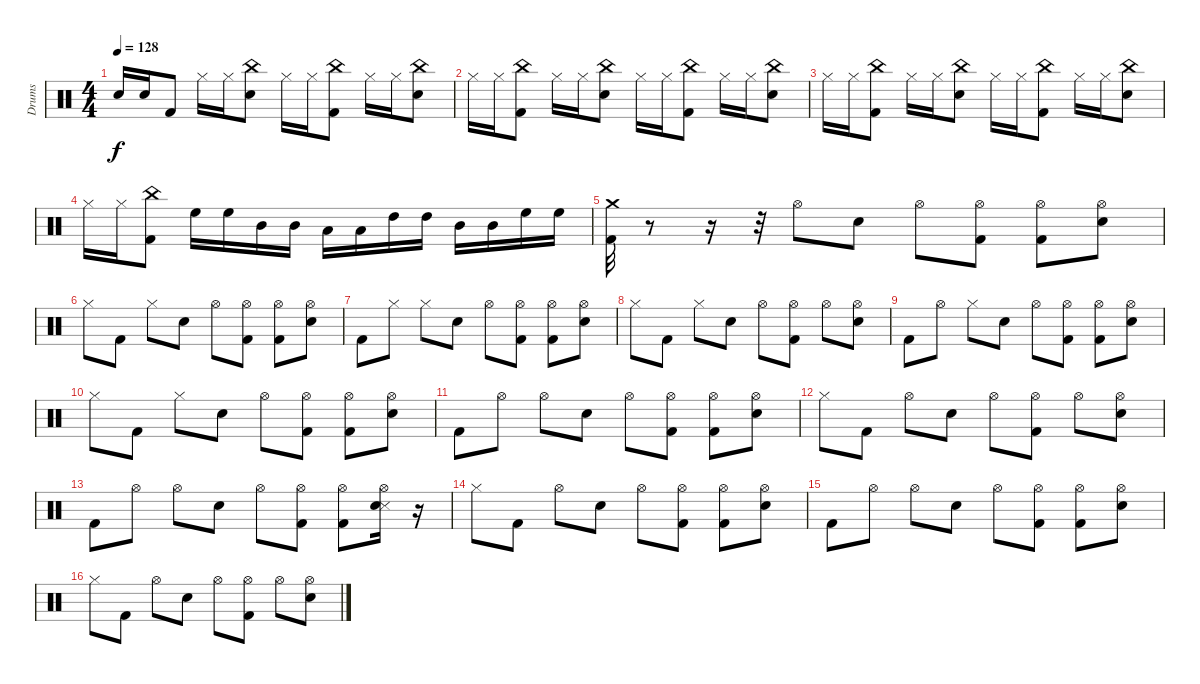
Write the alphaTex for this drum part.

\track ("Drums" "Drums") {instrument percussion}
\staff {score}
\articulation defaults
\ts (4 4)
\tempo 128
\clef neutral
\ks c "Snare (hit) 2".16{dy f} "Snare (hit) 2".16 "Kick (hit) 2".8 "Hi-Hat (closed)".16 "Hi-Hat (closed)".16
("China (hit)" "Snare (hit) 2").8 "Hi-Hat (closed)".16 "Hi-Hat (closed)".16 ("China (hit)" "Kick (hit) 2").8 "Hi-Hat (closed)".16 "Hi-Hat (closed)".16 ("China (hit)" "Snare (hit) 2").8 |
"Hi-Hat (closed)".16 "Hi-Hat (closed)".16 ("China (hit)" "Kick (hit) 2").8 "Hi-Hat (closed)".16 "Hi-Hat (closed)".16 ("China (hit)" "Snare (hit) 2").8 "Hi-Hat (closed)".16 "Hi-Hat (closed)".16 ("China (hit)" "Kick (hit) 2").8 "Hi-Hat (closed)".16 "Hi-Hat (closed)".16 ("China (hit)" "Snare (hit) 2").8 |
"Hi-Hat (closed)".16 "Hi-Hat (closed)".16 ("China (hit)" "Kick (hit) 2").8 "Hi-Hat (closed)".16 "Hi-Hat (closed)".16 ("China (hit)" "Snare (hit) 2").8 "Hi-Hat (closed)".16 "Hi-Hat (closed)".16 ("China (hit)" "Kick (hit) 2").8 "Hi-Hat (closed)".16 "Hi-Hat (closed)".16 ("China (hit)" "Snare (hit) 2").8 |
"Hi-Hat (closed)".16 "Hi-Hat (closed)".16 ("China (hit)" "Kick (hit) 2").8 "High Floor Tom (hit)".16 "High Floor Tom (hit)".16 "Mid Tom (hit)".16 "Mid Tom (hit)".16 "Low Tom (hit)".16 "Low Tom (hit)".16 "High Tom (hit)".16 "High Tom (hit)".16 "Mid Tom (hit)".16 "Mid Tom (hit)".16 "High Floor Tom (hit)".16 "High Floor Tom (hit)".16 |
("Crash medium (hit)" "Kick (hit) 2").32 r.8 r.16 r.32 "Hi-Hat (open)".8 "Snare (hit) 2".8 "Hi-Hat (open)".8 ("Hi-Hat (open)" "Kick (hit) 2").8 ("Hi-Hat (open)" "Kick (hit) 2").8 ("Hi-Hat (open)" "Snare (hit) 2").8 |
"Hi-Hat (closed)".8 "Kick (hit) 2".8 "Hi-Hat (closed)".8 "Snare (hit) 2".8 "Hi-Hat (open)".8 ("Hi-Hat (open)" "Kick (hit) 2").8 ("Hi-Hat (open)" "Kick (hit) 2").8 ("Hi-Hat (open)" "Snare (hit) 2").8 |
"Kick (hit) 2".8 "Hi-Hat (closed)".8 "Hi-Hat (closed)".8 "Snare (hit) 2".8 "Hi-Hat (open)".8 ("Hi-Hat (open)" "Kick (hit) 2").8 ("Hi-Hat (open)" "Kick (hit) 2").8 ("Hi-Hat (open)" "Snare (hit) 2").8 |
"Hi-Hat (closed)".8 "Kick (hit) 2".8 "Hi-Hat (closed)".8 "Snare (hit) 2".8 "Hi-Hat (open)".8 ("Hi-Hat (open)" "Kick (hit) 2").8 "Hi-Hat (open)".8 ("Hi-Hat (open)" "Snare (hit) 2").8 |
"Kick (hit) 2".8 "Hi-Hat (open)".8 "Hi-Hat (closed)".8 "Snare (hit) 2".8 "Hi-Hat (open)".8 ("Hi-Hat (open)" "Kick (hit) 2").8 ("Hi-Hat (open)" "Kick (hit) 2").8 ("Hi-Hat (open)" "Snare (hit) 2").8 |
"Hi-Hat (closed)".8 "Kick (hit) 2".8 "Hi-Hat (closed)".8 "Snare (hit) 2".8 "Hi-Hat (open)".8 ("Hi-Hat (open)" "Kick (hit) 2").8 ("Hi-Hat (open)" "Kick (hit) 2").8 ("Hi-Hat (open)" "Snare (hit) 2").8 |
"Kick (hit) 2".8 "Hi-Hat (open)".8 "Hi-Hat (open)".8 "Snare (hit) 2".8 "Hi-Hat (open)".8 ("Hi-Hat (open)" "Kick (hit) 2").8 ("Hi-Hat (open)" "Kick (hit) 2").8 ("Hi-Hat (open)" "Snare (hit) 2").8 |
"Hi-Hat (closed)".8 "Kick (hit) 2".8 "Hi-Hat (open)".8 "Snare (hit) 2".8 "Hi-Hat (open)".8 ("Hi-Hat (open)" "Kick (hit) 2").8 "Hi-Hat (open)".8 ("Hi-Hat (open)" "Snare (hit) 2").8 |
"Kick (hit) 2".8 "Hi-Hat (open)".8 "Hi-Hat (open)".8 "Snare (hit) 2".8 "Hi-Hat (open)".8 ("Hi-Hat (open)" "Kick (hit) 2").8 ("Hi-Hat (open)" "Kick (hit) 2").8 ("Hi-Hat (open)" "Snare (side stick) 3" "Snare (hit) 2").16 r.16 |
"Hi-Hat (closed)".8 "Kick (hit) 2".8 "Hi-Hat (open)".8 "Snare (hit) 2".8 "Hi-Hat (open)".8 ("Hi-Hat (open)" "Kick (hit) 2").8 ("Hi-Hat (open)" "Kick (hit) 2").8 ("Hi-Hat (open)" "Snare (hit) 2").8 |
"Kick (hit) 2".8 "Hi-Hat (open)".8 "Hi-Hat (open)".8 "Snare (hit) 2".8 "Hi-Hat (open)".8 ("Hi-Hat (open)" "Kick (hit) 2").8 ("Hi-Hat (open)" "Kick (hit) 2").8 ("Hi-Hat (open)" "Snare (hit) 2").8 |
"Hi-Hat (closed)".8 "Kick (hit) 2".8 "Hi-Hat (open)".8 "Snare (hit) 2".8 "Hi-Hat (open)".8 ("Hi-Hat (open)" "Kick (hit) 2").8 "Hi-Hat (open)".8 ("Hi-Hat (open)" "Snare (hit) 2").8
